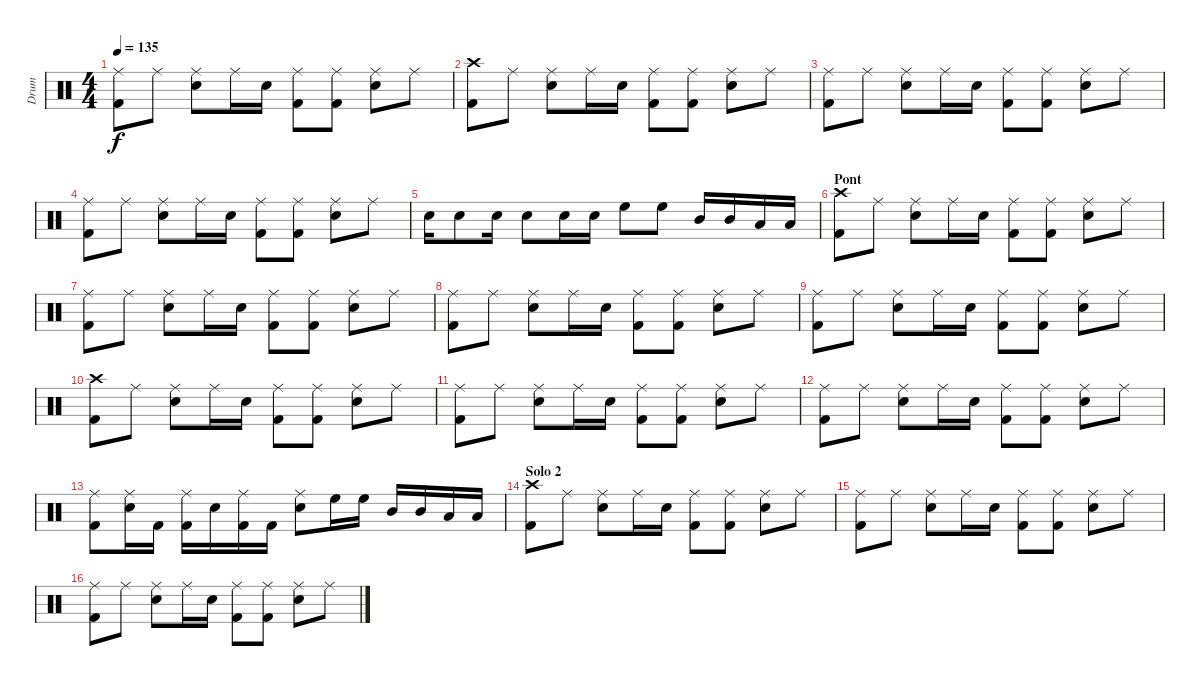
\track ("Drum" "Drum") {instrument percussion}
\staff {score}
\articulation defaults
\ts (4 4)
\tempo 135
\clef neutral
\ks c
("Ride (middle)" "Kick (hit) 2").8{dy f} "Ride (middle)".8 ("Ride (middle)" "Snare (hit) 2").8 "Ride (middle)".16 "Snare (hit) 2".16 ("Ride (middle)" "Kick (hit) 2").8 ("Ride (middle)" "Kick (hit) 2").8 ("Ride (middle)" "Snare (hit) 2").8 "Ride (middle)".8 |
("Crash high (hit)" "Kick (hit) 2").8 "Ride (middle)".8 ("Ride (middle)" "Snare (hit) 2").8 "Ride (middle)".16 "Snare (hit) 2".16 ("Ride (middle)" "Kick (hit) 2").8 ("Ride (middle)" "Kick (hit) 2").8 ("Ride (middle)" "Snare (hit) 2").8 "Ride (middle)".8 |
("Ride (middle)" "Kick (hit) 2").8 "Ride (middle)".8 ("Ride (middle)" "Snare (hit) 2").8 "Ride (middle)".16 "Snare (hit) 2".16 ("Ride (middle)" "Kick (hit) 2").8 ("Ride (middle)" "Kick (hit) 2").8 ("Ride (middle)" "Snare (hit) 2").8 "Ride (middle)".8 |
("Ride (middle)" "Kick (hit) 2").8 "Ride (middle)".8 ("Ride (middle)" "Snare (hit) 2").8 "Ride (middle)".16 "Snare (hit) 2".16 ("Ride (middle)" "Kick (hit) 2").8 ("Ride (middle)" "Kick (hit) 2").8 ("Ride (middle)" "Snare (hit) 2").8 "Ride (middle)".8 |
"Snare (hit) 2".16 "Snare (hit) 2".8 "Snare (hit) 2".16 "Snare (hit) 2".8 "Snare (hit) 2".16 "Snare (hit) 2".16 "High Floor Tom (hit)".8 "High Floor Tom (hit)".8 "Mid Tom (hit)".16 "Mid Tom (hit)".16 "Low Tom (hit)".16 "Low Tom (hit)".16 |
\section ("" "Pont")
("Crash high (hit)" "Kick (hit) 2").8 "Ride (middle)".8 ("Ride (middle)" "Snare (hit) 2").8 "Ride (middle)".16 "Snare (hit) 2".16 ("Ride (middle)" "Kick (hit) 2").8 ("Ride (middle)" "Kick (hit) 2").8 ("Ride (middle)" "Snare (hit) 2").8 "Ride (middle)".8 |
("Ride (middle)" "Kick (hit) 2").8 "Ride (middle)".8 ("Ride (middle)" "Snare (hit) 2").8 "Ride (middle)".16 "Snare (hit) 2".16 ("Ride (middle)" "Kick (hit) 2").8 ("Ride (middle)" "Kick (hit) 2").8 ("Ride (middle)" "Snare (hit) 2").8 "Ride (middle)".8 |
("Ride (middle)" "Kick (hit) 2").8 "Ride (middle)".8 ("Ride (middle)" "Snare (hit) 2").8 "Ride (middle)".16 "Snare (hit) 2".16 ("Ride (middle)" "Kick (hit) 2").8 ("Ride (middle)" "Kick (hit) 2").8 ("Ride (middle)" "Snare (hit) 2").8 "Ride (middle)".8 |
("Ride (middle)" "Kick (hit) 2").8 "Ride (middle)".8 ("Ride (middle)" "Snare (hit) 2").8 "Ride (middle)".16 "Snare (hit) 2".16 ("Ride (middle)" "Kick (hit) 2").8 ("Ride (middle)" "Kick (hit) 2").8 ("Ride (middle)" "Snare (hit) 2").8 "Ride (middle)".8 |
("Crash high (hit)" "Kick (hit) 2").8 "Ride (middle)".8 ("Ride (middle)" "Snare (hit) 2").8 "Ride (middle)".16 "Snare (hit) 2".16 ("Ride (middle)" "Kick (hit) 2").8 ("Ride (middle)" "Kick (hit) 2").8 ("Ride (middle)" "Snare (hit) 2").8 "Ride (middle)".8 |
("Ride (middle)" "Kick (hit) 2").8 "Ride (middle)".8 ("Ride (middle)" "Snare (hit) 2").8 "Ride (middle)".16 "Snare (hit) 2".16 ("Ride (middle)" "Kick (hit) 2").8 ("Ride (middle)" "Kick (hit) 2").8 ("Ride (middle)" "Snare (hit) 2").8 "Ride (middle)".8 |
("Ride (middle)" "Kick (hit) 2").8 "Ride (middle)".8 ("Ride (middle)" "Snare (hit) 2").8 "Ride (middle)".16 "Snare (hit) 2".16 ("Ride (middle)" "Kick (hit) 2").8 ("Ride (middle)" "Kick (hit) 2").8 ("Ride (middle)" "Snare (hit) 2").8 "Ride (middle)".8 |
("Ride (middle)" "Kick (hit) 2").8 ("Ride (middle)" "Snare (hit) 2").16 "Kick (hit) 2".16 ("Ride (middle)" "Kick (hit) 2").16 "Snare (hit) 2".16 ("Ride (middle)" "Kick (hit) 2").16 "Kick (hit) 2".16 ("Ride (middle)" "Snare (hit) 2").8 "High Floor Tom (hit)".16 "High Floor Tom (hit)".16 "Mid Tom (hit)".16 "Mid Tom (hit)".16 "Low Tom (hit)".16 "Low Tom (hit)".16 |
\section ("" "Solo 2")
("Crash high (hit)" "Kick (hit) 2").8 "Ride (middle)".8 ("Ride (middle)" "Snare (hit) 2").8 "Ride (middle)".16 "Snare (hit) 2".16 ("Ride (middle)" "Kick (hit) 2").8 ("Ride (middle)" "Kick (hit) 2").8 ("Ride (middle)" "Snare (hit) 2").8 "Ride (middle)".8 |
("Ride (middle)" "Kick (hit) 2").8 "Ride (middle)".8 ("Ride (middle)" "Snare (hit) 2").8 "Ride (middle)".16 "Snare (hit) 2".16 ("Ride (middle)" "Kick (hit) 2").8 ("Ride (middle)" "Kick (hit) 2").8 ("Ride (middle)" "Snare (hit) 2").8 "Ride (middle)".8 |
("Ride (middle)" "Kick (hit) 2").8 "Ride (middle)".8 ("Ride (middle)" "Snare (hit) 2").8 "Ride (middle)".16 "Snare (hit) 2".16 ("Ride (middle)" "Kick (hit) 2").8 ("Ride (middle)" "Kick (hit) 2").8 ("Ride (middle)" "Snare (hit) 2").8 "Ride (middle)".8
